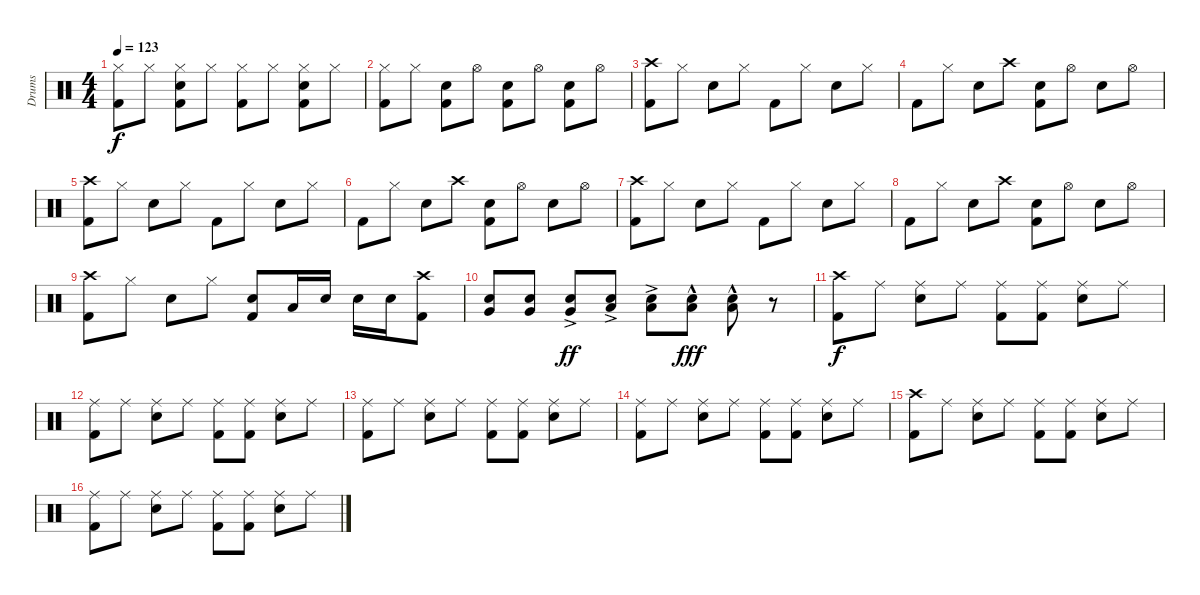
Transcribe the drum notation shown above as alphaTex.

\track ("Drums" "Drums") {instrument percussion}
\staff {score}
\articulation defaults
\ts (4 4)
\tempo 123
\clef neutral
\ks c
("Hi-Hat (closed)" "Kick (hit) 2").8{dy f} "Hi-Hat (closed)".8 ("Hi-Hat (closed)" "Snare (hit) 2" "Kick (hit) 2").8 "Hi-Hat (closed)".8 ("Hi-Hat (closed)" "Kick (hit) 2").8 "Hi-Hat (closed)".8 ("Hi-Hat (closed)" "Snare (hit) 2" "Kick (hit) 2").8 "Hi-Hat (closed)".8 |
("Hi-Hat (closed)" "Kick (hit) 2").8 "Hi-Hat (closed)".8 ("Snare (hit) 2" "Kick (hit) 2").8 "Hi-Hat (open)".8 ("Snare (hit) 2" "Kick (hit) 2").8 "Hi-Hat (open)".8 ("Snare (hit) 2" "Kick (hit) 2").8 "Hi-Hat (open)".8 |
("Crash high (hit)" "Kick (hit) 2").8 "Hi-Hat (closed)".8 "Snare (hit) 2".8 "Hi-Hat (closed)".8 "Kick (hit) 2".8 "Hi-Hat (closed)".8 "Snare (hit) 2".8 "Hi-Hat (closed)".8 |
"Kick (hit) 2".8 "Hi-Hat (closed)".8 "Snare (hit) 2".8 "Crash high (hit)".8 ("Snare (hit) 2" "Kick (hit) 2").8 "Hi-Hat (open)".8 "Snare (hit) 2".8 "Hi-Hat (open)".8 |
("Crash high (hit)" "Kick (hit) 2").8 "Hi-Hat (closed)".8 "Snare (hit) 2".8 "Hi-Hat (closed)".8 "Kick (hit) 2".8 "Hi-Hat (closed)".8 "Snare (hit) 2".8 "Hi-Hat (closed)".8 |
"Kick (hit) 2".8 "Hi-Hat (closed)".8 "Snare (hit) 2".8 "Crash high (hit)".8 ("Snare (hit) 2" "Kick (hit) 2").8 "Hi-Hat (open)".8 "Snare (hit) 2".8 "Hi-Hat (open)".8 |
("Crash high (hit)" "Kick (hit) 2").8 "Hi-Hat (closed)".8 "Snare (hit) 2".8 "Hi-Hat (closed)".8 "Kick (hit) 2".8 "Hi-Hat (closed)".8 "Snare (hit) 2".8 "Hi-Hat (closed)".8 |
"Kick (hit) 2".8 "Hi-Hat (closed)".8 "Snare (hit) 2".8 "Crash high (hit)".8 ("Snare (hit) 2" "Kick (hit) 2").8 "Hi-Hat (open)".8 "Snare (hit) 2".8 "Hi-Hat (open)".8 |
("Crash high (hit)" "Kick (hit) 2").8 "Hi-Hat (closed)".8 "Snare (hit) 2".8 "Hi-Hat (closed)".8 ("Snare (hit) 2" "Kick (hit) 2").8 "Low Tom (hit)".16 "Snare (hit) 2".16 "Snare (hit) 2".16 "Snare (hit) 2".16 ("Crash high (hit)" "Kick (hit) 2").8 |
("Snare (hit) 2" "Very Low Tom (hit)").8 ("Snare (hit) 2" "Very Low Tom (hit)").8 ("Snare (hit) 2"{ac} "Very Low Tom (hit)"{ac}).8{dy ff} ("Snare (hit) 2"{ac} "Low Tom (hit)"{ac}).8 ("Snare (hit) 2"{ac} "Low Tom (hit)"{ac}).8 ("Snare (hit) 2"{hac} "Low Tom (hit)"{hac}).8{dy fff} ("Snare (hit) 2"{hac} "Low Tom (hit)"{hac}).8 r.8 |
("Crash high (hit)" "Kick (hit) 2").8{dy f} "Ride (middle)".8 ("Ride (middle)" "Snare (hit) 2").8 "Ride (middle)".8 ("Ride (middle)" "Kick (hit) 2").8 ("Ride (middle)" "Kick (hit) 2").8 ("Ride (middle)" "Snare (hit) 2").8 "Ride (middle)".8 |
("Ride (middle)" "Kick (hit) 2").8 "Ride (middle)".8 ("Ride (middle)" "Snare (hit) 2").8 "Ride (middle)".8 ("Ride (middle)" "Kick (hit) 2").8 ("Ride (middle)" "Kick (hit) 2").8 ("Ride (middle)" "Snare (hit) 2").8 "Ride (middle)".8 |
("Ride (middle)" "Kick (hit) 2").8 "Ride (middle)".8 ("Ride (middle)" "Snare (hit) 2").8 "Ride (middle)".8 ("Ride (middle)" "Kick (hit) 2").8 ("Ride (middle)" "Kick (hit) 2").8 ("Ride (middle)" "Snare (hit) 2").8 "Ride (middle)".8 |
("Ride (middle)" "Kick (hit) 2").8 "Ride (middle)".8 ("Ride (middle)" "Snare (hit) 2").8 "Ride (middle)".8 ("Ride (middle)" "Kick (hit) 2").8 ("Ride (middle)" "Kick (hit) 2").8 ("Ride (middle)" "Snare (hit) 2").8 "Ride (middle)".8 |
("Crash high (hit)" "Kick (hit) 2").8 "Ride (middle)".8 ("Ride (middle)" "Snare (hit) 2").8 "Ride (middle)".8 ("Ride (middle)" "Kick (hit) 2").8 ("Ride (middle)" "Kick (hit) 2").8 ("Ride (middle)" "Snare (hit) 2").8 "Ride (middle)".8 |
("Ride (middle)" "Kick (hit) 2").8 "Ride (middle)".8 ("Ride (middle)" "Snare (hit) 2").8 "Ride (middle)".8 ("Ride (middle)" "Kick (hit) 2").8 ("Ride (middle)" "Kick (hit) 2").8 ("Ride (middle)" "Snare (hit) 2").8 "Ride (middle)".8
